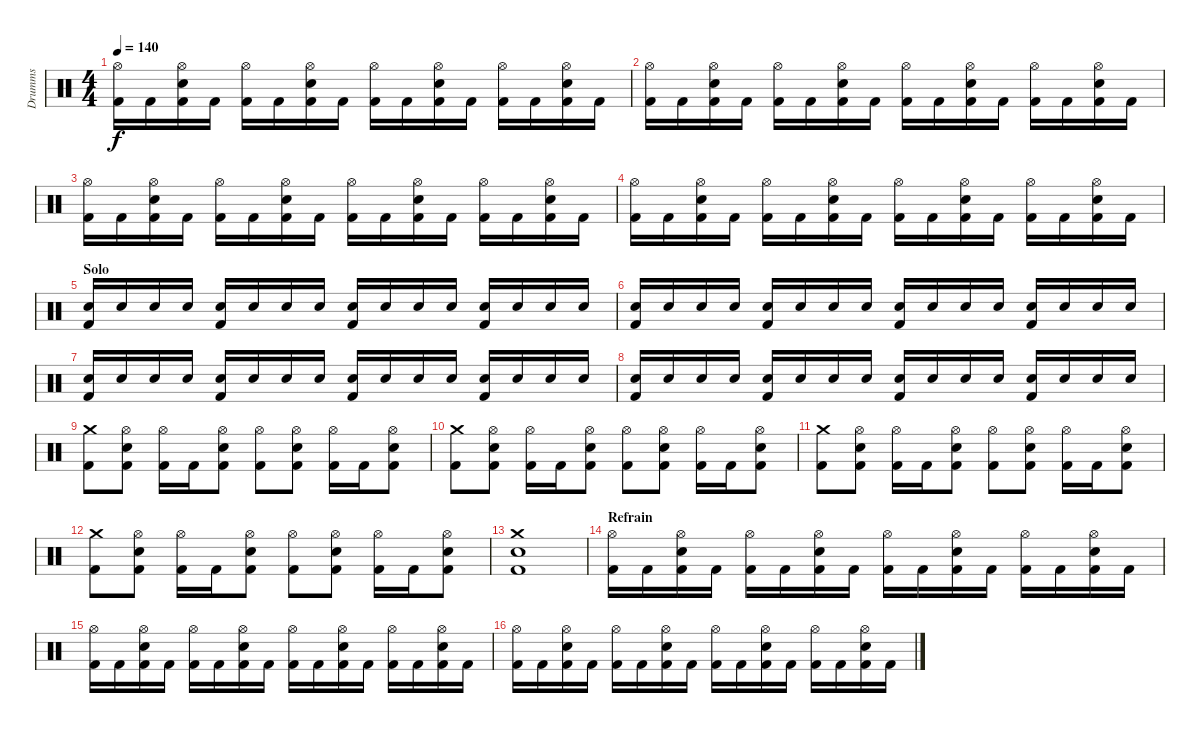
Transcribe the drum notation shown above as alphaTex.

\track ("Drumms" "Drumms") {instrument percussion}
\staff {score}
\articulation defaults
\ts (4 4)
\tempo 140
\clef neutral
\ks c
("Hi-Hat (open)" "Kick (hit) 2").16{dy f} "Kick (hit) 2".16 ("Hi-Hat (open)" "Electric Snare (hit)" "Kick (hit) 2").16 "Kick (hit) 2".16 ("Hi-Hat (open)" "Kick (hit) 2").16 "Kick (hit) 2".16 ("Hi-Hat (open)" "Electric Snare (hit)" "Kick (hit) 2").16 "Kick (hit) 2".16 ("Hi-Hat (open)" "Kick (hit) 2").16 "Kick (hit) 2".16 ("Hi-Hat (open)" "Electric Snare (hit)" "Kick (hit) 2").16 "Kick (hit) 2".16 ("Hi-Hat (open)" "Kick (hit) 2").16 "Kick (hit) 2".16 ("Hi-Hat (open)" "Electric Snare (hit)" "Kick (hit) 2").16 "Kick (hit) 2".16 |
("Hi-Hat (open)" "Kick (hit) 2").16 "Kick (hit) 2".16 ("Hi-Hat (open)" "Electric Snare (hit)" "Kick (hit) 2").16 "Kick (hit) 2".16 ("Hi-Hat (open)" "Kick (hit) 2").16 "Kick (hit) 2".16 ("Hi-Hat (open)" "Electric Snare (hit)" "Kick (hit) 2").16 "Kick (hit) 2".16 ("Hi-Hat (open)" "Kick (hit) 2").16 "Kick (hit) 2".16 ("Hi-Hat (open)" "Electric Snare (hit)" "Kick (hit) 2").16 "Kick (hit) 2".16 ("Hi-Hat (open)" "Kick (hit) 2").16 "Kick (hit) 2".16 ("Hi-Hat (open)" "Electric Snare (hit)" "Kick (hit) 2").16 "Kick (hit) 2".16 |
("Hi-Hat (open)" "Kick (hit) 2").16 "Kick (hit) 2".16 ("Hi-Hat (open)" "Electric Snare (hit)" "Kick (hit) 2").16 "Kick (hit) 2".16 ("Hi-Hat (open)" "Kick (hit) 2").16 "Kick (hit) 2".16 ("Hi-Hat (open)" "Electric Snare (hit)" "Kick (hit) 2").16 "Kick (hit) 2".16 ("Hi-Hat (open)" "Kick (hit) 2").16 "Kick (hit) 2".16 ("Hi-Hat (open)" "Electric Snare (hit)" "Kick (hit) 2").16 "Kick (hit) 2".16 ("Hi-Hat (open)" "Kick (hit) 2").16 "Kick (hit) 2".16 ("Hi-Hat (open)" "Electric Snare (hit)" "Kick (hit) 2").16 "Kick (hit) 2".16 |
("Hi-Hat (open)" "Kick (hit) 2").16 "Kick (hit) 2".16 ("Hi-Hat (open)" "Electric Snare (hit)" "Kick (hit) 2").16 "Kick (hit) 2".16 ("Hi-Hat (open)" "Kick (hit) 2").16 "Kick (hit) 2".16 ("Hi-Hat (open)" "Electric Snare (hit)" "Kick (hit) 2").16 "Kick (hit) 2".16 ("Hi-Hat (open)" "Kick (hit) 2").16 "Kick (hit) 2".16 ("Hi-Hat (open)" "Electric Snare (hit)" "Kick (hit) 2").16 "Kick (hit) 2".16 ("Hi-Hat (open)" "Kick (hit) 2").16 "Kick (hit) 2".16 ("Hi-Hat (open)" "Electric Snare (hit)" "Kick (hit) 2").16 "Kick (hit) 2".16 |
\section ("" "Solo")
("Electric Snare (hit)" "Kick (hit) 2").16 "Electric Snare (hit)".16 "Electric Snare (hit)".16 "Electric Snare (hit)".16 ("Electric Snare (hit)" "Kick (hit) 2").16 "Electric Snare (hit)".16 "Electric Snare (hit)".16 "Electric Snare (hit)".16 ("Electric Snare (hit)" "Kick (hit) 2").16 "Electric Snare (hit)".16 "Electric Snare (hit)".16 "Electric Snare (hit)".16 ("Electric Snare (hit)" "Kick (hit) 2").16 "Electric Snare (hit)".16 "Electric Snare (hit)".16 "Electric Snare (hit)".16 |
("Electric Snare (hit)" "Kick (hit) 2").16 "Electric Snare (hit)".16 "Electric Snare (hit)".16 "Electric Snare (hit)".16 ("Electric Snare (hit)" "Kick (hit) 2").16 "Electric Snare (hit)".16 "Electric Snare (hit)".16 "Electric Snare (hit)".16 ("Electric Snare (hit)" "Kick (hit) 2").16 "Electric Snare (hit)".16 "Electric Snare (hit)".16 "Electric Snare (hit)".16 ("Electric Snare (hit)" "Kick (hit) 2").16 "Electric Snare (hit)".16 "Electric Snare (hit)".16 "Electric Snare (hit)".16 |
("Electric Snare (hit)" "Kick (hit) 2").16 "Electric Snare (hit)".16 "Electric Snare (hit)".16 "Electric Snare (hit)".16 ("Electric Snare (hit)" "Kick (hit) 2").16 "Electric Snare (hit)".16 "Electric Snare (hit)".16 "Electric Snare (hit)".16 ("Electric Snare (hit)" "Kick (hit) 2").16 "Electric Snare (hit)".16 "Electric Snare (hit)".16 "Electric Snare (hit)".16 ("Electric Snare (hit)" "Kick (hit) 2").16 "Electric Snare (hit)".16 "Electric Snare (hit)".16 "Electric Snare (hit)".16 |
("Electric Snare (hit)" "Kick (hit) 2").16 "Electric Snare (hit)".16 "Electric Snare (hit)".16 "Electric Snare (hit)".16 ("Electric Snare (hit)" "Kick (hit) 2").16 "Electric Snare (hit)".16 "Electric Snare (hit)".16 "Electric Snare (hit)".16 ("Electric Snare (hit)" "Kick (hit) 2").16 "Electric Snare (hit)".16 "Electric Snare (hit)".16 "Electric Snare (hit)".16 ("Electric Snare (hit)" "Kick (hit) 2").16 "Electric Snare (hit)".16 "Electric Snare (hit)".16 "Electric Snare (hit)".16 |
("Crash medium (hit)" "Kick (hit) 2").8 ("Hi-Hat (open)" "Electric Snare (hit)" "Kick (hit) 2").8 ("Hi-Hat (open)" "Kick (hit) 2").16 "Kick (hit) 2".16 ("Hi-Hat (open)" "Electric Snare (hit)" "Kick (hit) 2").8 ("Hi-Hat (open)" "Kick (hit) 2").8 ("Hi-Hat (open)" "Electric Snare (hit)" "Kick (hit) 2").8 ("Hi-Hat (open)" "Kick (hit) 2").16 "Kick (hit) 2".16 ("Hi-Hat (open)" "Electric Snare (hit)" "Kick (hit) 2").8 |
("Crash medium (hit)" "Kick (hit) 2").8 ("Hi-Hat (open)" "Electric Snare (hit)" "Kick (hit) 2").8 ("Hi-Hat (open)" "Kick (hit) 2").16 "Kick (hit) 2".16 ("Hi-Hat (open)" "Electric Snare (hit)" "Kick (hit) 2").8 ("Hi-Hat (open)" "Kick (hit) 2").8 ("Hi-Hat (open)" "Electric Snare (hit)" "Kick (hit) 2").8 ("Hi-Hat (open)" "Kick (hit) 2").16 "Kick (hit) 2".16 ("Hi-Hat (open)" "Electric Snare (hit)" "Kick (hit) 2").8 |
("Crash medium (hit)" "Kick (hit) 2").8 ("Hi-Hat (open)" "Electric Snare (hit)" "Kick (hit) 2").8 ("Hi-Hat (open)" "Kick (hit) 2").16 "Kick (hit) 2".16 ("Hi-Hat (open)" "Electric Snare (hit)" "Kick (hit) 2").8 ("Hi-Hat (open)" "Kick (hit) 2").8 ("Hi-Hat (open)" "Electric Snare (hit)" "Kick (hit) 2").8 ("Hi-Hat (open)" "Kick (hit) 2").16 "Kick (hit) 2".16 ("Hi-Hat (open)" "Electric Snare (hit)" "Kick (hit) 2").8 |
("Crash medium (hit)" "Kick (hit) 2").8 ("Hi-Hat (open)" "Electric Snare (hit)" "Kick (hit) 2").8 ("Hi-Hat (open)" "Kick (hit) 2").16 "Kick (hit) 2".16 ("Hi-Hat (open)" "Electric Snare (hit)" "Kick (hit) 2").8 ("Hi-Hat (open)" "Kick (hit) 2").8 ("Hi-Hat (open)" "Electric Snare (hit)" "Kick (hit) 2").8 ("Hi-Hat (open)" "Kick (hit) 2").16 "Kick (hit) 2".16 ("Hi-Hat (open)" "Electric Snare (hit)" "Kick (hit) 2").8 |
("Crash medium (hit)" "Electric Snare (hit)" "Kick (hit) 2").1 |
\section ("" "Refrain")
("Hi-Hat (open)" "Kick (hit) 2").16 "Kick (hit) 2".16 ("Hi-Hat (open)" "Electric Snare (hit)" "Kick (hit) 2").16 "Kick (hit) 2".16 ("Hi-Hat (open)" "Kick (hit) 2").16 "Kick (hit) 2".16 ("Hi-Hat (open)" "Electric Snare (hit)" "Kick (hit) 2").16 "Kick (hit) 2".16 ("Hi-Hat (open)" "Kick (hit) 2").16 "Kick (hit) 2".16 ("Hi-Hat (open)" "Electric Snare (hit)" "Kick (hit) 2").16 "Kick (hit) 2".16 ("Hi-Hat (open)" "Kick (hit) 2").16 "Kick (hit) 2".16 ("Hi-Hat (open)" "Electric Snare (hit)" "Kick (hit) 2").16 "Kick (hit) 2".16 |
("Hi-Hat (open)" "Kick (hit) 2").16 "Kick (hit) 2".16 ("Hi-Hat (open)" "Electric Snare (hit)" "Kick (hit) 2").16 "Kick (hit) 2".16 ("Hi-Hat (open)" "Kick (hit) 2").16 "Kick (hit) 2".16 ("Hi-Hat (open)" "Electric Snare (hit)" "Kick (hit) 2").16 "Kick (hit) 2".16 ("Hi-Hat (open)" "Kick (hit) 2").16 "Kick (hit) 2".16 ("Hi-Hat (open)" "Electric Snare (hit)" "Kick (hit) 2").16 "Kick (hit) 2".16 ("Hi-Hat (open)" "Kick (hit) 2").16 "Kick (hit) 2".16 ("Hi-Hat (open)" "Electric Snare (hit)" "Kick (hit) 2").16 "Kick (hit) 2".16 |
("Hi-Hat (open)" "Kick (hit) 2").16 "Kick (hit) 2".16 ("Hi-Hat (open)" "Electric Snare (hit)" "Kick (hit) 2").16 "Kick (hit) 2".16 ("Hi-Hat (open)" "Kick (hit) 2").16 "Kick (hit) 2".16 ("Hi-Hat (open)" "Electric Snare (hit)" "Kick (hit) 2").16 "Kick (hit) 2".16 ("Hi-Hat (open)" "Kick (hit) 2").16 "Kick (hit) 2".16 ("Hi-Hat (open)" "Electric Snare (hit)" "Kick (hit) 2").16 "Kick (hit) 2".16 ("Hi-Hat (open)" "Kick (hit) 2").16 "Kick (hit) 2".16 ("Hi-Hat (open)" "Electric Snare (hit)" "Kick (hit) 2").16 "Kick (hit) 2".16
